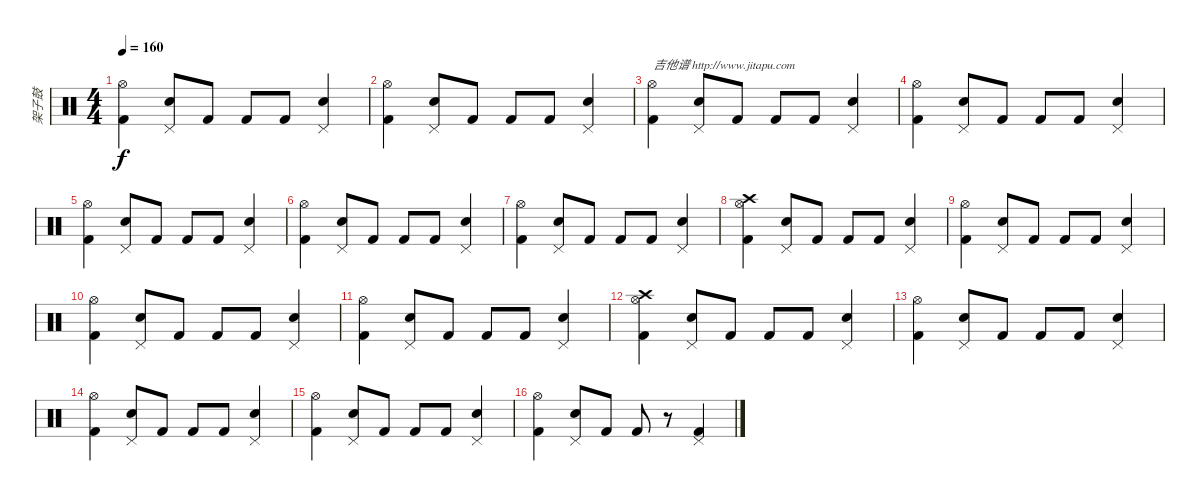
\track ("架子鼓" "架子鼓") {instrument percussion}
\staff {score}
\articulation defaults
\ts (4 4)
\tempo 160
\clef neutral
\ks c
("Kick (hit) 2" "Hi-Hat (open)").4{dy f} ("Electric Snare (hit)" "Pedal Hi-Hat (hit)").8 "Kick (hit) 2".8 "Kick (hit) 2".8 "Kick (hit) 2".8 ("Electric Snare (hit)" "Pedal Hi-Hat (hit)").4 |
("Kick (hit) 2" "Hi-Hat (open)").4 ("Electric Snare (hit)" "Pedal Hi-Hat (hit)").8 "Kick (hit) 2".8 "Kick (hit) 2".8 "Kick (hit) 2".8 ("Electric Snare (hit)" "Pedal Hi-Hat (hit)").4 |
("Kick (hit) 2" "Hi-Hat (open)").4{txt "吉他谱 http://www.jitapu.com"} ("Electric Snare (hit)" "Pedal Hi-Hat (hit)").8 "Kick (hit) 2".8 "Kick (hit) 2".8 "Kick (hit) 2".8 ("Electric Snare (hit)" "Pedal Hi-Hat (hit)").4 |
("Kick (hit) 2" "Hi-Hat (open)").4 ("Electric Snare (hit)" "Pedal Hi-Hat (hit)").8 "Kick (hit) 2".8 "Kick (hit) 2".8 "Kick (hit) 2".8 ("Electric Snare (hit)" "Pedal Hi-Hat (hit)").4 |
("Kick (hit) 2" "Hi-Hat (open)").4 ("Electric Snare (hit)" "Pedal Hi-Hat (hit)").8 "Kick (hit) 2".8 "Kick (hit) 2".8 "Kick (hit) 2".8 ("Electric Snare (hit)" "Pedal Hi-Hat (hit)").4 |
("Kick (hit) 2" "Hi-Hat (open)").4 ("Electric Snare (hit)" "Pedal Hi-Hat (hit)").8 "Kick (hit) 2".8 "Kick (hit) 2".8 "Kick (hit) 2".8 ("Electric Snare (hit)" "Pedal Hi-Hat (hit)").4 |
("Kick (hit) 2" "Hi-Hat (open)").4 ("Electric Snare (hit)" "Pedal Hi-Hat (hit)").8 "Kick (hit) 2".8 "Kick (hit) 2".8 "Kick (hit) 2".8 ("Electric Snare (hit)" "Pedal Hi-Hat (hit)").4 |
("Kick (hit) 2" "Hi-Hat (open)" "Crash high (hit)").4 ("Electric Snare (hit)" "Pedal Hi-Hat (hit)").8 "Kick (hit) 2".8 "Kick (hit) 2".8 "Kick (hit) 2".8 ("Electric Snare (hit)" "Pedal Hi-Hat (hit)").4 |
("Kick (hit) 2" "Hi-Hat (open)").4 ("Electric Snare (hit)" "Pedal Hi-Hat (hit)").8 "Kick (hit) 2".8 "Kick (hit) 2".8 "Kick (hit) 2".8 ("Electric Snare (hit)" "Pedal Hi-Hat (hit)").4 |
("Kick (hit) 2" "Hi-Hat (open)").4 ("Electric Snare (hit)" "Pedal Hi-Hat (hit)").8 "Kick (hit) 2".8 "Kick (hit) 2".8 "Kick (hit) 2".8 ("Electric Snare (hit)" "Pedal Hi-Hat (hit)").4 |
("Kick (hit) 2" "Hi-Hat (open)").4 ("Electric Snare (hit)" "Pedal Hi-Hat (hit)").8 "Kick (hit) 2".8 "Kick (hit) 2".8 "Kick (hit) 2".8 ("Electric Snare (hit)" "Pedal Hi-Hat (hit)").4 |
("Kick (hit) 2" "Hi-Hat (open)" "Crash high (hit)").4 ("Electric Snare (hit)" "Pedal Hi-Hat (hit)").8 "Kick (hit) 2".8 "Kick (hit) 2".8 "Kick (hit) 2".8 ("Electric Snare (hit)" "Pedal Hi-Hat (hit)").4 |
("Kick (hit) 2" "Hi-Hat (open)").4 ("Electric Snare (hit)" "Pedal Hi-Hat (hit)").8 "Kick (hit) 2".8 "Kick (hit) 2".8 "Kick (hit) 2".8 ("Electric Snare (hit)" "Pedal Hi-Hat (hit)").4 |
("Kick (hit) 2" "Hi-Hat (open)").4 ("Electric Snare (hit)" "Pedal Hi-Hat (hit)").8 "Kick (hit) 2".8 "Kick (hit) 2".8 "Kick (hit) 2".8 ("Electric Snare (hit)" "Pedal Hi-Hat (hit)").4 |
("Kick (hit) 2" "Hi-Hat (open)").4 ("Electric Snare (hit)" "Pedal Hi-Hat (hit)").8 "Kick (hit) 2".8 "Kick (hit) 2".8 "Kick (hit) 2".8 ("Electric Snare (hit)" "Pedal Hi-Hat (hit)").4 |
("Kick (hit) 2" "Hi-Hat (open)").4 ("Electric Snare (hit)" "Pedal Hi-Hat (hit)").8 "Kick (hit) 2".8 "Kick (hit) 2".8 r.8 ("Kick (hit) 2" "Pedal Hi-Hat (hit)").4
